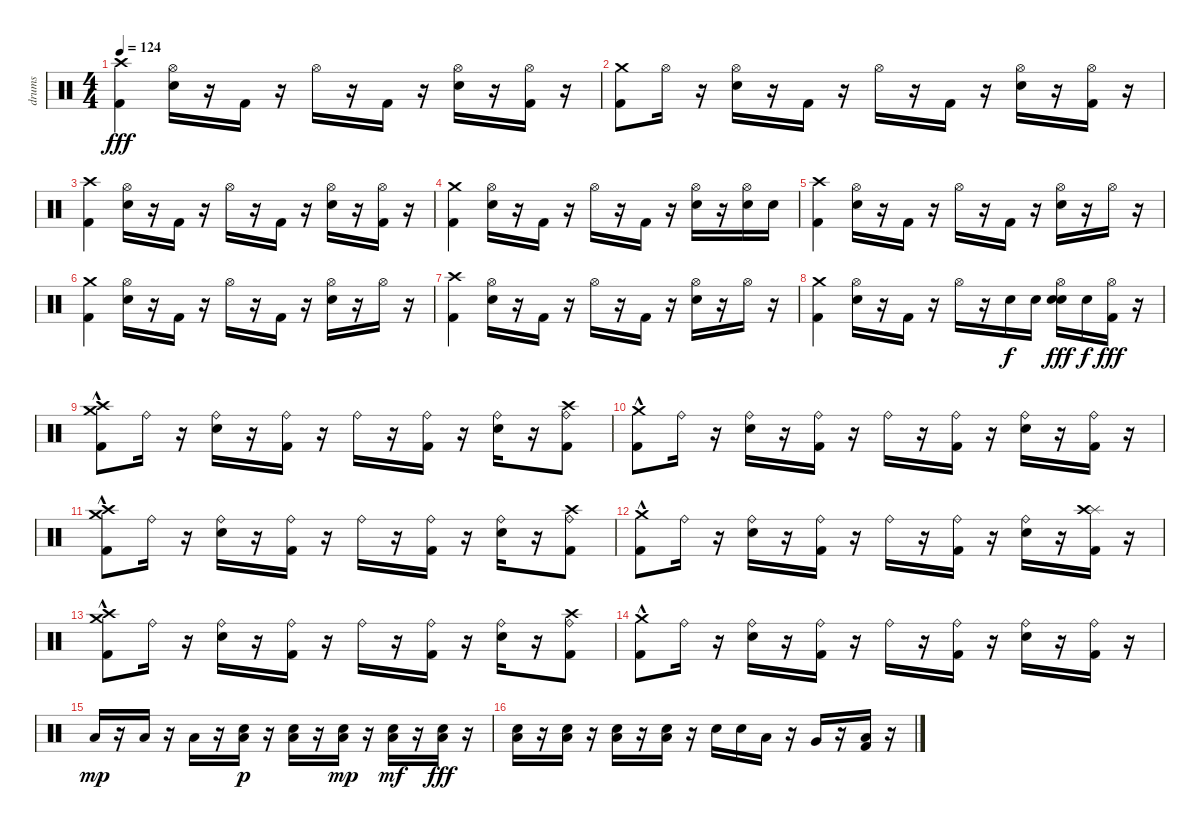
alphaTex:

\track ("drums" "drums") {instrument percussion}
\staff {score}
\articulation defaults
\ts (4 4)
\tempo 124
\clef neutral
\ks c
("Kick (hit) 2" "Crash high (hit)").4{dy fff} ("Snare (hit) 2" "Hi-Hat (open)").16 r.16 "Kick (hit) 2".16 r.16 "Hi-Hat (open)".16 r.16 "Kick (hit) 2".16 r.16 ("Snare (hit) 2" "Hi-Hat (open)").16 r.16 ("Hi-Hat (open)" "Kick (hit) 2").16 r.16 |
("Kick (hit) 2" "Crash medium (hit)").8 "Hi-Hat (open)".16 r.16 ("Snare (hit) 2" "Hi-Hat (open)").16 r.16 "Kick (hit) 2".16 r.16 "Hi-Hat (open)".16 r.16 "Kick (hit) 2".16 r.16 ("Snare (hit) 2" "Hi-Hat (open)").16 r.16 ("Kick (hit) 2" "Hi-Hat (open)").16 r.16 |
("Kick (hit) 2" "Crash high (hit)").4 ("Snare (hit) 2" "Hi-Hat (open)").16 r.16 "Kick (hit) 2".16 r.16 "Hi-Hat (open)".16 r.16 "Kick (hit) 2".16 r.16 ("Snare (hit) 2" "Hi-Hat (open)").16 r.16 ("Hi-Hat (open)" "Kick (hit) 2").16 r.16 |
("Kick (hit) 2" "Crash medium (hit)").4 ("Snare (hit) 2" "Hi-Hat (open)").16 r.16 "Kick (hit) 2".16 r.16 "Hi-Hat (open)".16 r.16 "Kick (hit) 2".16 r.16 ("Snare (hit) 2" "Hi-Hat (open)").16 r.16 ("Hi-Hat (open)" "Snare (hit) 2").16 "Snare (hit) 2".16 |
("Kick (hit) 2" "Crash high (hit)").4 ("Snare (hit) 2" "Hi-Hat (open)").16 r.16 "Kick (hit) 2".16 r.16 "Hi-Hat (open)".16 r.16 "Kick (hit) 2".16 r.16 ("Snare (hit) 2" "Hi-Hat (open)").16 r.16 "Hi-Hat (open)".16 r.16 |
("Kick (hit) 2" "Crash medium (hit)").4 ("Snare (hit) 2" "Hi-Hat (open)").16 r.16 "Kick (hit) 2".16 r.16 "Hi-Hat (open)".16 r.16 "Kick (hit) 2".16 r.16 ("Snare (hit) 2" "Hi-Hat (open)").16 r.16 "Hi-Hat (open)".16 r.16 |
("Kick (hit) 2" "Crash high (hit)").4 ("Snare (hit) 2" "Hi-Hat (open)").16 r.16 "Kick (hit) 2".16 r.16 "Hi-Hat (open)".16 r.16 "Kick (hit) 2".16 r.16 ("Snare (hit) 2" "Hi-Hat (open)").16 r.16 "Hi-Hat (open)".16 r.16 |
("Kick (hit) 2" "Crash medium (hit)").4 ("Snare (hit) 2" "Hi-Hat (open)").16 r.16 "Kick (hit) 2".16 r.16 "Hi-Hat (open)".16 r.16 "Snare (hit) 2".16{dy f} "Snare (hit) 2".16 ("Snare (hit) 2" "Snare (hit) 2" "Hi-Hat (open)").16{dy fff} "Snare (hit) 2".16{dy f} ("Hi-Hat (open)" "Kick (hit) 2").16{dy fff} r.16 |
("Crash medium (hit)"{hac} "Crash high (hit)"{hac} "Kick (hit) 2").8 "Ride (bell)".16 r.16 ("Snare (hit) 2" "Ride (bell)").16 r.16 ("Kick (hit) 2" "Ride (bell)").16 r.16 "Ride (bell)".16 r.16 ("Kick (hit) 2" "Ride (bell)").16 r.16 ("Snare (hit) 2" "Ride (bell)").16 r.16 ("Crash high (hit)" "Kick (hit) 2" "Ride (bell)").8 |
("Crash medium (hit)"{hac} "Kick (hit) 2").8 "Ride (bell)".16 r.16 ("Snare (hit) 2" "Ride (bell)").16 r.16 ("Kick (hit) 2" "Ride (bell)").16 r.16 "Ride (bell)".16 r.16 ("Kick (hit) 2" "Ride (bell)").16 r.16 ("Snare (hit) 2" "Ride (bell)").16 r.16 ("Kick (hit) 2" "Ride (bell)").16 r.16 |
("Crash medium (hit)"{hac} "Crash high (hit)"{hac} "Kick (hit) 2").8 "Ride (bell)".16 r.16 ("Snare (hit) 2" "Ride (bell)").16 r.16 ("Kick (hit) 2" "Ride (bell)").16 r.16 "Ride (bell)".16 r.16 ("Kick (hit) 2" "Ride (bell)").16 r.16 ("Snare (hit) 2" "Ride (bell)").16 r.16 ("Crash high (hit)" "Kick (hit) 2" "Ride (bell)").8 |
("Crash medium (hit)"{hac} "Kick (hit) 2").8 "Ride (bell)".16 r.16 ("Snare (hit) 2" "Ride (bell)").16 r.16 ("Kick (hit) 2" "Ride (bell)").16 r.16 "Ride (bell)".16 r.16 ("Kick (hit) 2" "Ride (bell)").16 r.16 ("Snare (hit) 2" "Ride (bell)").16 r.16 ("Kick (hit) 2" "Splash (hit)" "Crash high (hit)").16 r.16 |
("Crash medium (hit)"{hac} "Crash high (hit)"{hac} "Kick (hit) 2").8 "Ride (bell)".16 r.16 ("Snare (hit) 2" "Ride (bell)").16 r.16 ("Kick (hit) 2" "Ride (bell)").16 r.16 "Ride (bell)".16 r.16 ("Kick (hit) 2" "Ride (bell)").16 r.16 ("Snare (hit) 2" "Ride (bell)").16 r.16 ("Crash high (hit)" "Kick (hit) 2" "Ride (bell)").8 |
("Crash medium (hit)"{hac} "Kick (hit) 2").8 "Ride (bell)".16 r.16 ("Snare (hit) 2" "Ride (bell)").16 r.16 ("Kick (hit) 2" "Ride (bell)").16 r.16 "Ride (bell)".16 r.16 ("Kick (hit) 2" "Ride (bell)").16 r.16 ("Snare (hit) 2" "Ride (bell)").16 r.16 ("Kick (hit) 2" "Ride (bell)").16 r.16 |
"Low Floor Tom (hit)".16{dy mp} r.16 "Low Floor Tom (hit)".16 r.16 "Low Floor Tom (hit)".16 r.16 ("Low Floor Tom (hit)" "Snare (hit) 2").16{dy p} r.16 ("Low Floor Tom (hit)" "Snare (hit) 2").16 r.16 ("Snare (hit) 2" "Low Floor Tom (hit)").16{dy mp} r.16 ("Snare (hit) 2" "Low Floor Tom (hit)").16{dy mf} r.16 ("Snare (hit) 2" "Low Floor Tom (hit)").16{dy fff} r.16 |
("Snare (hit) 2" "Low Floor Tom (hit)").16 r.16 ("Snare (hit) 2" "Low Floor Tom (hit)").16 r.16 ("Snare (hit) 2" "Low Floor Tom (hit)").16 r.16 ("Snare (hit) 2" "Low Floor Tom (hit)").16 r.16 "Snare (hit) 2".16 "Snare (hit) 2".16 "Low Tom (hit)".16 r.16 "Very Low Tom (hit)".16 r.16 ("Kick (hit) 2" "Low Floor Tom (hit)").16 r.16
